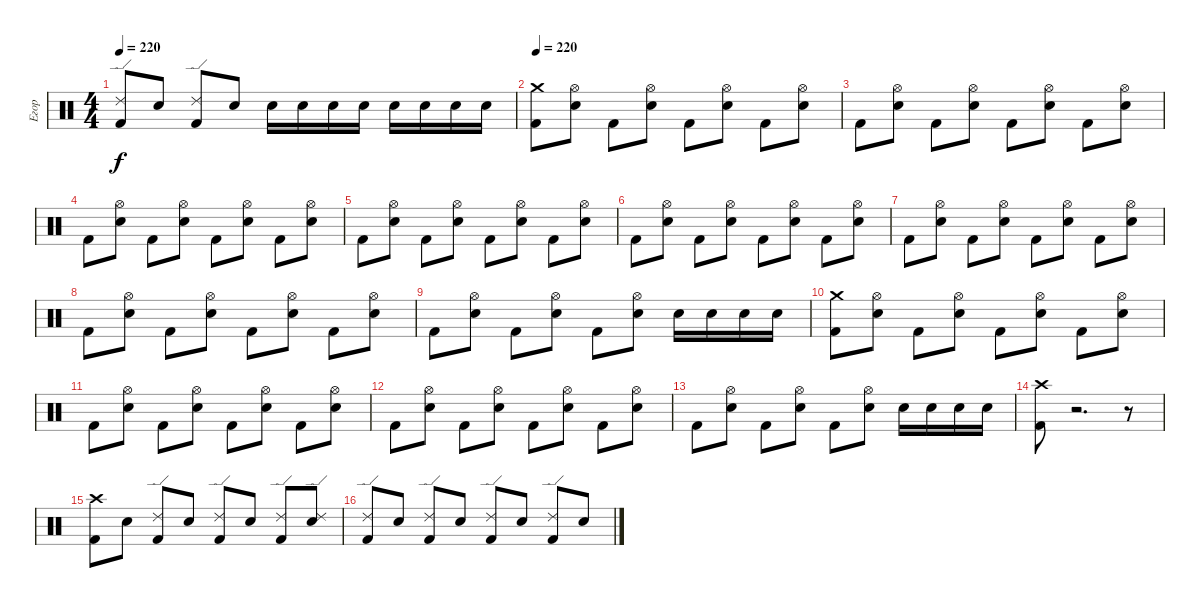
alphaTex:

\track ("Егор" "Егор") {instrument percussion}
\staff {score}
\articulation defaults
\ts (4 4)
\tempo 220
\clef neutral
\ks c
("Ride (edge) 2" "Kick (hit) 2").8{dy f} "Snare (hit) 2".8 ("Ride (edge) 2" "Kick (hit) 2").8 "Snare (hit) 2".8 "Snare (hit) 2".16 "Snare (hit) 2".16 "Snare (hit) 2".16 "Snare (hit) 2".16 "Snare (hit) 2".16 "Snare (hit) 2".16 "Snare (hit) 2".16 "Snare (hit) 2".16 |
\tempo 220
("Crash medium (hit)" "Kick (hit) 2").8 ("Hi-Hat (open)" "Snare (hit) 2").8 "Kick (hit) 2".8 ("Hi-Hat (open)" "Snare (hit) 2").8 "Kick (hit) 2".8 ("Hi-Hat (open)" "Snare (hit) 2").8 "Kick (hit) 2".8 ("Hi-Hat (open)" "Snare (hit) 2").8 |
"Kick (hit) 2".8 ("Hi-Hat (open)" "Snare (hit) 2").8 "Kick (hit) 2".8 ("Hi-Hat (open)" "Snare (hit) 2").8 "Kick (hit) 2".8 ("Hi-Hat (open)" "Snare (hit) 2").8 "Kick (hit) 2".8 ("Hi-Hat (open)" "Snare (hit) 2").8 |
"Kick (hit) 2".8 ("Hi-Hat (open)" "Snare (hit) 2").8 "Kick (hit) 2".8 ("Hi-Hat (open)" "Snare (hit) 2").8 "Kick (hit) 2".8 ("Hi-Hat (open)" "Snare (hit) 2").8 "Kick (hit) 2".8 ("Hi-Hat (open)" "Snare (hit) 2").8 |
"Kick (hit) 2".8 ("Hi-Hat (open)" "Snare (hit) 2").8 "Kick (hit) 2".8 ("Hi-Hat (open)" "Snare (hit) 2").8 "Kick (hit) 2".8 ("Hi-Hat (open)" "Snare (hit) 2").8 "Kick (hit) 2".8 ("Hi-Hat (open)" "Snare (hit) 2").8 |
"Kick (hit) 2".8 ("Hi-Hat (open)" "Snare (hit) 2").8 "Kick (hit) 2".8 ("Hi-Hat (open)" "Snare (hit) 2").8 "Kick (hit) 2".8 ("Hi-Hat (open)" "Snare (hit) 2").8 "Kick (hit) 2".8 ("Hi-Hat (open)" "Snare (hit) 2").8 |
"Kick (hit) 2".8 ("Hi-Hat (open)" "Snare (hit) 2").8 "Kick (hit) 2".8 ("Hi-Hat (open)" "Snare (hit) 2").8 "Kick (hit) 2".8 ("Hi-Hat (open)" "Snare (hit) 2").8 "Kick (hit) 2".8 ("Hi-Hat (open)" "Snare (hit) 2").8 |
"Kick (hit) 2".8 ("Hi-Hat (open)" "Snare (hit) 2").8 "Kick (hit) 2".8 ("Hi-Hat (open)" "Snare (hit) 2").8 "Kick (hit) 2".8 ("Hi-Hat (open)" "Snare (hit) 2").8 "Kick (hit) 2".8 ("Hi-Hat (open)" "Snare (hit) 2").8 |
"Kick (hit) 2".8 ("Hi-Hat (open)" "Snare (hit) 2").8 "Kick (hit) 2".8 ("Hi-Hat (open)" "Snare (hit) 2").8 "Kick (hit) 2".8 ("Hi-Hat (open)" "Snare (hit) 2").8 "Snare (hit) 2".16 "Snare (hit) 2".16 "Snare (hit) 2".16 "Snare (hit) 2".16 |
("Crash medium (hit)" "Kick (hit) 2").8 ("Hi-Hat (open)" "Snare (hit) 2").8 "Kick (hit) 2".8 ("Hi-Hat (open)" "Snare (hit) 2").8 "Kick (hit) 2".8 ("Hi-Hat (open)" "Snare (hit) 2").8 "Kick (hit) 2".8 ("Hi-Hat (open)" "Snare (hit) 2").8 |
"Kick (hit) 2".8 ("Hi-Hat (open)" "Snare (hit) 2").8 "Kick (hit) 2".8 ("Hi-Hat (open)" "Snare (hit) 2").8 "Kick (hit) 2".8 ("Hi-Hat (open)" "Snare (hit) 2").8 "Kick (hit) 2".8 ("Hi-Hat (open)" "Snare (hit) 2").8 |
"Kick (hit) 2".8 ("Hi-Hat (open)" "Snare (hit) 2").8 "Kick (hit) 2".8 ("Hi-Hat (open)" "Snare (hit) 2").8 "Kick (hit) 2".8 ("Hi-Hat (open)" "Snare (hit) 2").8 "Kick (hit) 2".8 ("Hi-Hat (open)" "Snare (hit) 2").8 |
"Kick (hit) 2".8 ("Hi-Hat (open)" "Snare (hit) 2").8 "Kick (hit) 2".8 ("Hi-Hat (open)" "Snare (hit) 2").8 "Kick (hit) 2".8 ("Hi-Hat (open)" "Snare (hit) 2").8 "Snare (hit) 2".16 "Snare (hit) 2".16 "Snare (hit) 2".16 "Snare (hit) 2".16 |
("Crash high (hit)" "Kick (hit) 2").8 r.2{d} r.8 |
("Crash high (hit)" "Kick (hit) 2").8 "Snare (hit) 2".8 ("Ride (edge) 2" "Kick (hit) 2").8 "Snare (hit) 2".8 ("Ride (edge) 2" "Kick (hit) 2").8 "Snare (hit) 2".8 ("Ride (edge) 2" "Kick (hit) 2").8 ("Ride (edge) 2" "Snare (hit) 2").8 |
("Ride (edge) 2" "Kick (hit) 2").8 "Snare (hit) 2".8 ("Ride (edge) 2" "Kick (hit) 2").8 "Snare (hit) 2".8 ("Ride (edge) 2" "Kick (hit) 2").8 "Snare (hit) 2".8 ("Ride (edge) 2" "Kick (hit) 2").8 "Snare (hit) 2".8
